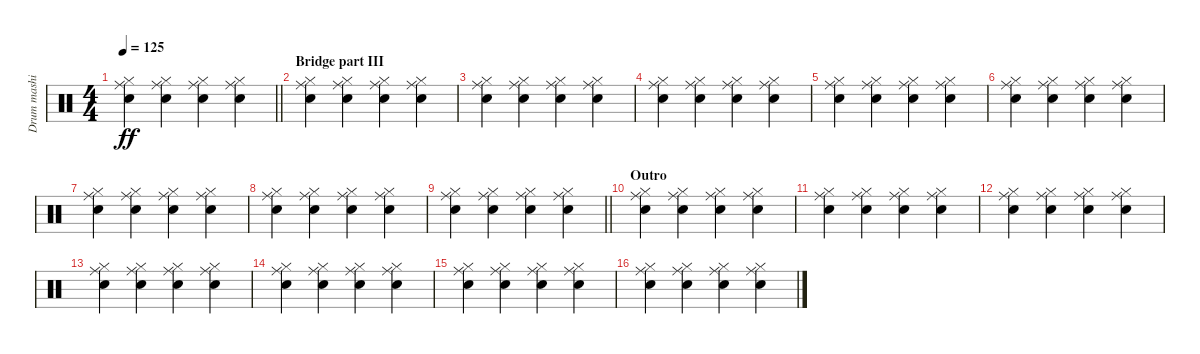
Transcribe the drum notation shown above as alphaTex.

\track ("Drum mashine" "Drum mashi") {instrument percussion}
\staff
\articulation defaults
\ts (4 4)
\tempo 125
\clef neutral
\barLineRight lightlight
\ks c
("Ride (middle)" "Electric Snare (hit)" "Hi-Hat (closed)").4{dy ff} ("Ride (middle)" "Electric Snare (hit)" "Hi-Hat (closed)").4 ("Ride (middle)" "Electric Snare (hit)" "Hi-Hat (closed)").4 ("Ride (middle)" "Electric Snare (hit)" "Hi-Hat (closed)").4 |
\section ("" "Bridge part III")
("Ride (middle)" "Electric Snare (hit)" "Hi-Hat (closed)").4 ("Ride (middle)" "Electric Snare (hit)" "Hi-Hat (closed)").4 ("Ride (middle)" "Electric Snare (hit)" "Hi-Hat (closed)").4 ("Ride (middle)" "Electric Snare (hit)" "Hi-Hat (closed)").4 |
("Ride (middle)" "Electric Snare (hit)" "Hi-Hat (closed)").4 ("Ride (middle)" "Electric Snare (hit)" "Hi-Hat (closed)").4 ("Ride (middle)" "Electric Snare (hit)" "Hi-Hat (closed)").4 ("Ride (middle)" "Electric Snare (hit)" "Hi-Hat (closed)").4 |
("Ride (middle)" "Electric Snare (hit)" "Hi-Hat (closed)").4 ("Ride (middle)" "Electric Snare (hit)" "Hi-Hat (closed)").4 ("Ride (middle)" "Electric Snare (hit)" "Hi-Hat (closed)").4 ("Ride (middle)" "Electric Snare (hit)" "Hi-Hat (closed)").4 |
("Ride (middle)" "Electric Snare (hit)" "Hi-Hat (closed)").4 ("Ride (middle)" "Electric Snare (hit)" "Hi-Hat (closed)").4 ("Ride (middle)" "Electric Snare (hit)" "Hi-Hat (closed)").4 ("Ride (middle)" "Electric Snare (hit)" "Hi-Hat (closed)").4 |
("Ride (middle)" "Electric Snare (hit)" "Hi-Hat (closed)").4 ("Ride (middle)" "Electric Snare (hit)" "Hi-Hat (closed)").4 ("Ride (middle)" "Electric Snare (hit)" "Hi-Hat (closed)").4 ("Ride (middle)" "Electric Snare (hit)" "Hi-Hat (closed)").4 |
("Ride (middle)" "Electric Snare (hit)" "Hi-Hat (closed)").4 ("Ride (middle)" "Electric Snare (hit)" "Hi-Hat (closed)").4 ("Ride (middle)" "Electric Snare (hit)" "Hi-Hat (closed)").4 ("Ride (middle)" "Electric Snare (hit)" "Hi-Hat (closed)").4 |
("Ride (middle)" "Electric Snare (hit)" "Hi-Hat (closed)").4 ("Ride (middle)" "Electric Snare (hit)" "Hi-Hat (closed)").4 ("Ride (middle)" "Electric Snare (hit)" "Hi-Hat (closed)").4 ("Ride (middle)" "Electric Snare (hit)" "Hi-Hat (closed)").4 |
\barLineRight lightlight
("Ride (middle)" "Electric Snare (hit)" "Hi-Hat (closed)").4 ("Ride (middle)" "Electric Snare (hit)" "Hi-Hat (closed)").4 ("Ride (middle)" "Electric Snare (hit)" "Hi-Hat (closed)").4 ("Ride (middle)" "Electric Snare (hit)" "Hi-Hat (closed)").4 |
\section ("" "Outro")
("Ride (middle)" "Electric Snare (hit)" "Hi-Hat (closed)").4 ("Ride (middle)" "Electric Snare (hit)" "Hi-Hat (closed)").4 ("Ride (middle)" "Electric Snare (hit)" "Hi-Hat (closed)").4 ("Ride (middle)" "Electric Snare (hit)" "Hi-Hat (closed)").4 |
("Ride (middle)" "Electric Snare (hit)" "Hi-Hat (closed)").4 ("Ride (middle)" "Electric Snare (hit)" "Hi-Hat (closed)").4 ("Ride (middle)" "Electric Snare (hit)" "Hi-Hat (closed)").4 ("Ride (middle)" "Electric Snare (hit)" "Hi-Hat (closed)").4 |
("Ride (middle)" "Electric Snare (hit)" "Hi-Hat (closed)").4 ("Ride (middle)" "Electric Snare (hit)" "Hi-Hat (closed)").4 ("Ride (middle)" "Electric Snare (hit)" "Hi-Hat (closed)").4 ("Ride (middle)" "Electric Snare (hit)" "Hi-Hat (closed)").4 |
("Ride (middle)" "Electric Snare (hit)" "Hi-Hat (closed)").4 ("Ride (middle)" "Electric Snare (hit)" "Hi-Hat (closed)").4 ("Ride (middle)" "Electric Snare (hit)" "Hi-Hat (closed)").4 ("Ride (middle)" "Electric Snare (hit)" "Hi-Hat (closed)").4 |
("Ride (middle)" "Electric Snare (hit)" "Hi-Hat (closed)").4 ("Ride (middle)" "Electric Snare (hit)" "Hi-Hat (closed)").4 ("Ride (middle)" "Electric Snare (hit)" "Hi-Hat (closed)").4 ("Ride (middle)" "Electric Snare (hit)" "Hi-Hat (closed)").4 |
("Ride (middle)" "Electric Snare (hit)" "Hi-Hat (closed)").4 ("Ride (middle)" "Electric Snare (hit)" "Hi-Hat (closed)").4 ("Ride (middle)" "Electric Snare (hit)" "Hi-Hat (closed)").4 ("Ride (middle)" "Electric Snare (hit)" "Hi-Hat (closed)").4 |
("Ride (middle)" "Electric Snare (hit)" "Hi-Hat (closed)").4 ("Ride (middle)" "Electric Snare (hit)" "Hi-Hat (closed)").4 ("Ride (middle)" "Electric Snare (hit)" "Hi-Hat (closed)").4 ("Ride (middle)" "Electric Snare (hit)" "Hi-Hat (closed)").4
